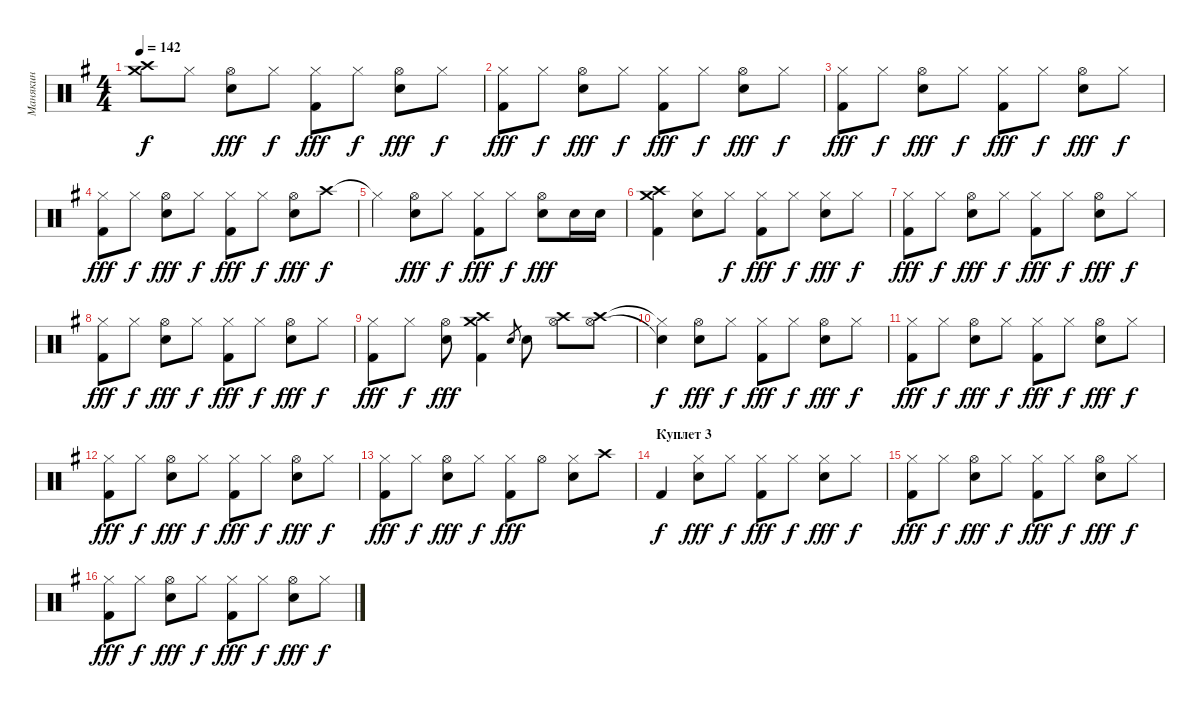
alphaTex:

\track ("Манякин" "Манякин") {instrument percussion}
\staff {score}
\articulation defaults
\ts (4 4)
\tempo 142
\clef neutral
\ks eminor
("Crash high (hit)"{t} "Crash medium (hit)"{t}).8{dy f} "Hi-Hat (closed)".8 ("Hi-Hat (open)" "Electric Snare (hit)").8{dy fff} "Hi-Hat (closed)".8{dy f} ("Hi-Hat (closed)" "Kick (hit) 2").8{dy fff} "Hi-Hat (closed)".8{dy f} ("Hi-Hat (open)" "Electric Snare (hit)").8{dy fff} "Hi-Hat (closed)".8{dy f} |
("Hi-Hat (closed)" "Kick (hit) 2").8{dy fff} "Hi-Hat (closed)".8{dy f} ("Hi-Hat (open)" "Electric Snare (hit)").8{dy fff} "Hi-Hat (closed)".8{dy f} ("Hi-Hat (closed)" "Kick (hit) 2").8{dy fff} "Hi-Hat (closed)".8{dy f} ("Hi-Hat (open)" "Electric Snare (hit)").8{dy fff} "Hi-Hat (closed)".8{dy f} |
("Hi-Hat (closed)" "Kick (hit) 2").8{dy fff} "Hi-Hat (closed)".8{dy f} ("Hi-Hat (open)" "Electric Snare (hit)").8{dy fff} "Hi-Hat (closed)".8{dy f} ("Hi-Hat (closed)" "Kick (hit) 2").8{dy fff} "Hi-Hat (closed)".8{dy f} ("Hi-Hat (open)" "Electric Snare (hit)").8{dy fff} "Hi-Hat (closed)".8{dy f} |
("Hi-Hat (closed)" "Kick (hit) 2").8{dy fff} "Hi-Hat (closed)".8{dy f} ("Hi-Hat (open)" "Electric Snare (hit)").8{dy fff} "Hi-Hat (closed)".8{dy f} ("Hi-Hat (closed)" "Kick (hit) 2").8{dy fff} "Hi-Hat (closed)".8{dy f} ("Hi-Hat (open)" "Electric Snare (hit)").8{dy fff} "Crash high (hit)".8{dy f} |
"Hi-Hat (closed)"{t}.4 ("Hi-Hat (open)" "Electric Snare (hit)").8{dy fff} "Hi-Hat (closed)".8{dy f} ("Hi-Hat (closed)" "Kick (hit) 2").8{dy fff} "Hi-Hat (closed)".8{dy f} ("Hi-Hat (open)" "Electric Snare (hit)").8{dy fff} "Electric Snare (hit)".16 "Electric Snare (hit)".16 |
("Crash high (hit)" "Crash medium (hit)" "Kick (hit) 2").4 ("Hi-Hat (closed)" "Electric Snare (hit)").8 "Hi-Hat (closed)".8{dy f} ("Hi-Hat (closed)" "Kick (hit) 2").8{dy fff} "Hi-Hat (closed)".8{dy f} ("Hi-Hat (closed)" "Electric Snare (hit)").8{dy fff} "Hi-Hat (closed)".8{dy f} |
("Hi-Hat (closed)" "Kick (hit) 2").8{dy fff} "Hi-Hat (closed)".8{dy f} ("Hi-Hat (open)" "Electric Snare (hit)").8{dy fff} "Hi-Hat (closed)".8{dy f} ("Hi-Hat (closed)" "Kick (hit) 2").8{dy fff} "Hi-Hat (closed)".8{dy f} ("Hi-Hat (open)" "Electric Snare (hit)").8{dy fff} "Hi-Hat (closed)".8{dy f} |
("Hi-Hat (closed)" "Kick (hit) 2").8{dy fff} "Hi-Hat (closed)".8{dy f} ("Hi-Hat (open)" "Electric Snare (hit)").8{dy fff} "Hi-Hat (closed)".8{dy f} ("Hi-Hat (closed)" "Kick (hit) 2").8{dy fff} "Hi-Hat (closed)".8{dy f} ("Hi-Hat (open)" "Electric Snare (hit)").8{dy fff} "Hi-Hat (closed)".8{dy f} |
("Hi-Hat (closed)" "Kick (hit) 2").8{dy fff} "Hi-Hat (closed)".8{dy f} ("Hi-Hat (open)" "Electric Snare (hit)").8{dy fff} ("Crash high (hit)" "Crash medium (hit)" "Kick (hit) 2").4 "Electric Snare (hit)".8{gr} "Electric Snare (hit)".8 ("Crash high (hit)" "Hi-Hat (open)").8 ("Crash high (hit)" "Hi-Hat (open)").8 |
("Hi-Hat (closed)"{t} "Snare (hit)"{t}).4{dy f} ("Hi-Hat (open)" "Electric Snare (hit)").8{dy fff} "Hi-Hat (closed)".8{dy f} ("Hi-Hat (closed)" "Kick (hit) 2").8{dy fff} "Hi-Hat (closed)".8{dy f} ("Hi-Hat (open)" "Electric Snare (hit)").8{dy fff} "Hi-Hat (closed)".8{dy f} |
("Hi-Hat (closed)" "Kick (hit) 2").8{dy fff} "Hi-Hat (closed)".8{dy f} ("Hi-Hat (open)" "Electric Snare (hit)").8{dy fff} "Hi-Hat (closed)".8{dy f} ("Hi-Hat (closed)" "Kick (hit) 2").8{dy fff} "Hi-Hat (closed)".8{dy f} ("Hi-Hat (open)" "Electric Snare (hit)").8{dy fff} "Hi-Hat (closed)".8{dy f} |
("Hi-Hat (closed)" "Kick (hit) 2").8{dy fff} "Hi-Hat (closed)".8{dy f} ("Hi-Hat (open)" "Electric Snare (hit)").8{dy fff} "Hi-Hat (closed)".8{dy f} ("Hi-Hat (closed)" "Kick (hit) 2").8{dy fff} "Hi-Hat (closed)".8{dy f} ("Hi-Hat (open)" "Electric Snare (hit)").8{dy fff} "Hi-Hat (closed)".8{dy f} |
("Hi-Hat (closed)" "Kick (hit) 2").8{dy fff} "Hi-Hat (closed)".8{dy f} ("Hi-Hat (open)" "Electric Snare (hit)").8{dy fff} "Hi-Hat (closed)".8{dy f} ("Hi-Hat (closed)" "Kick (hit) 2").8{dy fff} "Hi-Hat (open)".8 ("Hi-Hat (closed)" "Electric Snare (hit)").8 "Crash high (hit)".8 |
\section ("" "Куплет 3")
"Kick (hit) 2".4{dy f} ("Hi-Hat (closed)" "Electric Snare (hit)").8{dy fff} "Hi-Hat (closed)".8{dy f} ("Hi-Hat (closed)" "Kick (hit) 2").8{dy fff} "Hi-Hat (closed)".8{dy f} ("Hi-Hat (closed)" "Electric Snare (hit)").8{dy fff} "Hi-Hat (closed)".8{dy f} |
("Hi-Hat (closed)" "Kick (hit) 2").8{dy fff} "Hi-Hat (closed)".8{dy f} ("Hi-Hat (open)" "Electric Snare (hit)").8{dy fff} "Hi-Hat (closed)".8{dy f} ("Hi-Hat (closed)" "Kick (hit) 2").8{dy fff} "Hi-Hat (closed)".8{dy f} ("Hi-Hat (open)" "Electric Snare (hit)").8{dy fff} "Hi-Hat (closed)".8{dy f} |
("Hi-Hat (closed)" "Kick (hit) 2").8{dy fff} "Hi-Hat (closed)".8{dy f} ("Hi-Hat (open)" "Electric Snare (hit)").8{dy fff} "Hi-Hat (closed)".8{dy f} ("Hi-Hat (closed)" "Kick (hit) 2").8{dy fff} "Hi-Hat (closed)".8{dy f} ("Hi-Hat (open)" "Electric Snare (hit)").8{dy fff} "Hi-Hat (closed)".8{dy f}
